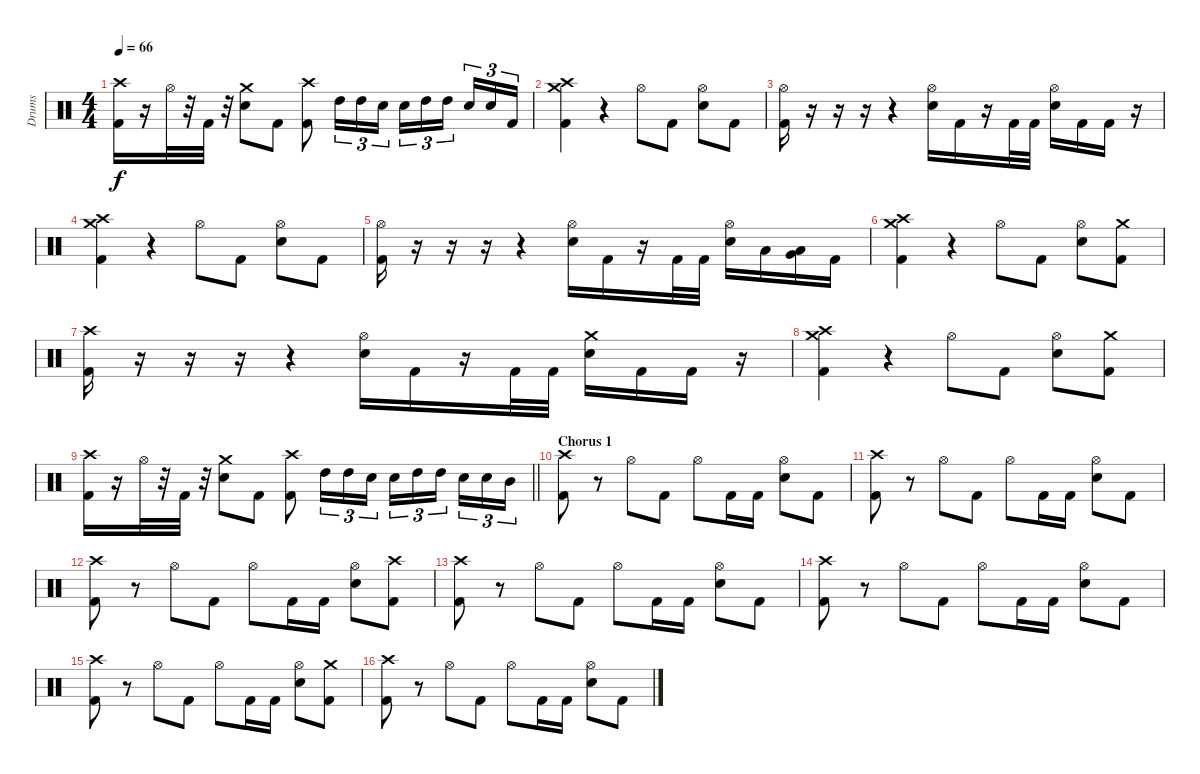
\track ("Drums" "Drums") {instrument percussion}
\staff {score}
\articulation defaults
\ts (4 4)
\tempo 66
\clef neutral
\ks c
("Crash high (hit)" "Kick (hit) 2").16{dy f} r.16 "Hi-Hat (open)".32 r.32 "Kick (hit) 2".32 r.32 ("Crash medium (hit)" "Snare (hit) 2").8 "Kick (hit) 2".8 ("Crash high (hit)" "Kick (hit) 2").8 "High Tom (hit)".16{tu (3 2)} "High Tom (hit)".16{tu (3 2)} "Snare (hit) 2".16{tu (3 2)} "Snare (hit) 2".16{tu (3 2)} "High Tom (hit)".16{tu (3 2)} "High Tom (hit)".16{tu (3 2) beam splitsecondary} "Snare (hit) 2".16{tu (3 2)} "Snare (hit) 2".16{tu (3 2)} "Kick (hit) 2".16{tu (3 2)} |
("Crash high (hit)" "Crash medium (hit)" "Kick (hit) 2").4 r.4 "Hi-Hat (open)".8 "Kick (hit) 2".8 ("Hi-Hat (open)" "Snare (hit) 2").8 "Kick (hit) 2".8 |
("Hi-Hat (open)" "Kick (hit) 2").16 r.16 r.16 r.16 r.4 ("Hi-Hat (open)" "Snare (hit) 2").16 "Kick (hit) 2".16 r.16 "Kick (hit) 2".32 "Kick (hit) 2".32 ("Hi-Hat (open)" "Snare (hit) 2").16 "Kick (hit) 2".16 "Kick (hit) 2".16 r.16 |
("Crash high (hit)" "Crash medium (hit)" "Kick (hit) 2").4 r.4 "Hi-Hat (open)".8 "Kick (hit) 2".8 ("Hi-Hat (open)" "Snare (hit) 2").8 "Kick (hit) 2".8 |
("Hi-Hat (open)" "Kick (hit) 2").16 r.16 r.16 r.16 r.4 ("Hi-Hat (open)" "Snare (hit) 2").16 "Kick (hit) 2".16 r.16 "Kick (hit) 2".32 "Kick (hit) 2".32 ("Hi-Hat (open)" "Snare (hit) 2").16 "Low Tom (hit)".16 ("Low Tom (hit)" "Very Low Tom (hit)").16 "Kick (hit) 2".16 |
("Crash high (hit)" "Crash medium (hit)" "Kick (hit) 2").4 r.4 "Hi-Hat (open)".8 "Kick (hit) 2".8 ("Hi-Hat (open)" "Snare (hit) 2").8 ("Crash medium (hit)" "Kick (hit) 2").8 |
("Crash high (hit)" "Kick (hit) 2").16 r.16 r.16 r.16 r.4 ("Hi-Hat (open)" "Snare (hit) 2").16 "Kick (hit) 2".16 r.16 "Kick (hit) 2".32 "Kick (hit) 2".32 ("Crash medium (hit)" "Snare (hit) 2").16 "Kick (hit) 2".16 "Kick (hit) 2".16 r.16 |
("Crash high (hit)" "Crash medium (hit)" "Kick (hit) 2").4 r.4 "Hi-Hat (open)".8 "Kick (hit) 2".8 ("Hi-Hat (open)" "Snare (hit) 2").8 ("Crash medium (hit)" "Kick (hit) 2").8 |
\barLineRight lightlight
("Crash high (hit)" "Kick (hit) 2").16 r.16 "Hi-Hat (open)".32 r.32 "Kick (hit) 2".32 r.32 ("Crash medium (hit)" "Snare (hit) 2").8 "Kick (hit) 2".8 ("Crash high (hit)" "Kick (hit) 2").8 "High Tom (hit)".16{tu (3 2)} "High Tom (hit)".16{tu (3 2)} "Snare (hit) 2".16{tu (3 2)} "Snare (hit) 2".16{tu (3 2)} "High Tom (hit)".16{tu (3 2)} "High Tom (hit)".16{tu (3 2) beam splitsecondary} "Snare (hit) 2".16{tu (3 2)} "Snare (hit) 2".16{tu (3 2)} "Mid Tom (hit)".16{tu (3 2)} |
\section ("" "Chorus 1")
("Crash high (hit)" "Kick (hit) 2").8 r.8 "Hi-Hat (open)".8 "Kick (hit) 2".8 "Hi-Hat (open)".8 "Kick (hit) 2".16 "Kick (hit) 2".16 ("Hi-Hat (open)" "Snare (hit) 2").8 "Kick (hit) 2".8 |
("Crash high (hit)" "Kick (hit) 2").8 r.8 "Hi-Hat (open)".8 "Kick (hit) 2".8 "Hi-Hat (open)".8 "Kick (hit) 2".16 "Kick (hit) 2".16 ("Hi-Hat (open)" "Snare (hit) 2").8 "Kick (hit) 2".8 |
("Crash high (hit)" "Kick (hit) 2").8 r.8 "Hi-Hat (open)".8 "Kick (hit) 2".8 "Hi-Hat (open)".8 "Kick (hit) 2".16 "Kick (hit) 2".16 ("Hi-Hat (open)" "Snare (hit) 2").8 ("Crash high (hit)" "Kick (hit) 2").8 |
("Crash high (hit)" "Kick (hit) 2").8 r.8 "Hi-Hat (open)".8 "Kick (hit) 2".8 "Hi-Hat (open)".8 "Kick (hit) 2".16 "Kick (hit) 2".16 ("Hi-Hat (open)" "Snare (hit) 2").8 "Kick (hit) 2".8 |
("Crash high (hit)" "Kick (hit) 2").8 r.8 "Hi-Hat (open)".8 "Kick (hit) 2".8 "Hi-Hat (open)".8 "Kick (hit) 2".16 "Kick (hit) 2".16 ("Hi-Hat (open)" "Snare (hit) 2").8 "Kick (hit) 2".8 |
("Crash high (hit)" "Kick (hit) 2").8 r.8 "Hi-Hat (open)".8 "Kick (hit) 2".8 "Hi-Hat (open)".8 "Kick (hit) 2".16 "Kick (hit) 2".16 ("Hi-Hat (open)" "Snare (hit) 2").8 ("Crash medium (hit)" "Kick (hit) 2").8 |
("Crash high (hit)" "Kick (hit) 2").8 r.8 "Hi-Hat (open)".8 "Kick (hit) 2".8 "Hi-Hat (open)".8 "Kick (hit) 2".16 "Kick (hit) 2".16 ("Hi-Hat (open)" "Snare (hit) 2").8 "Kick (hit) 2".8
